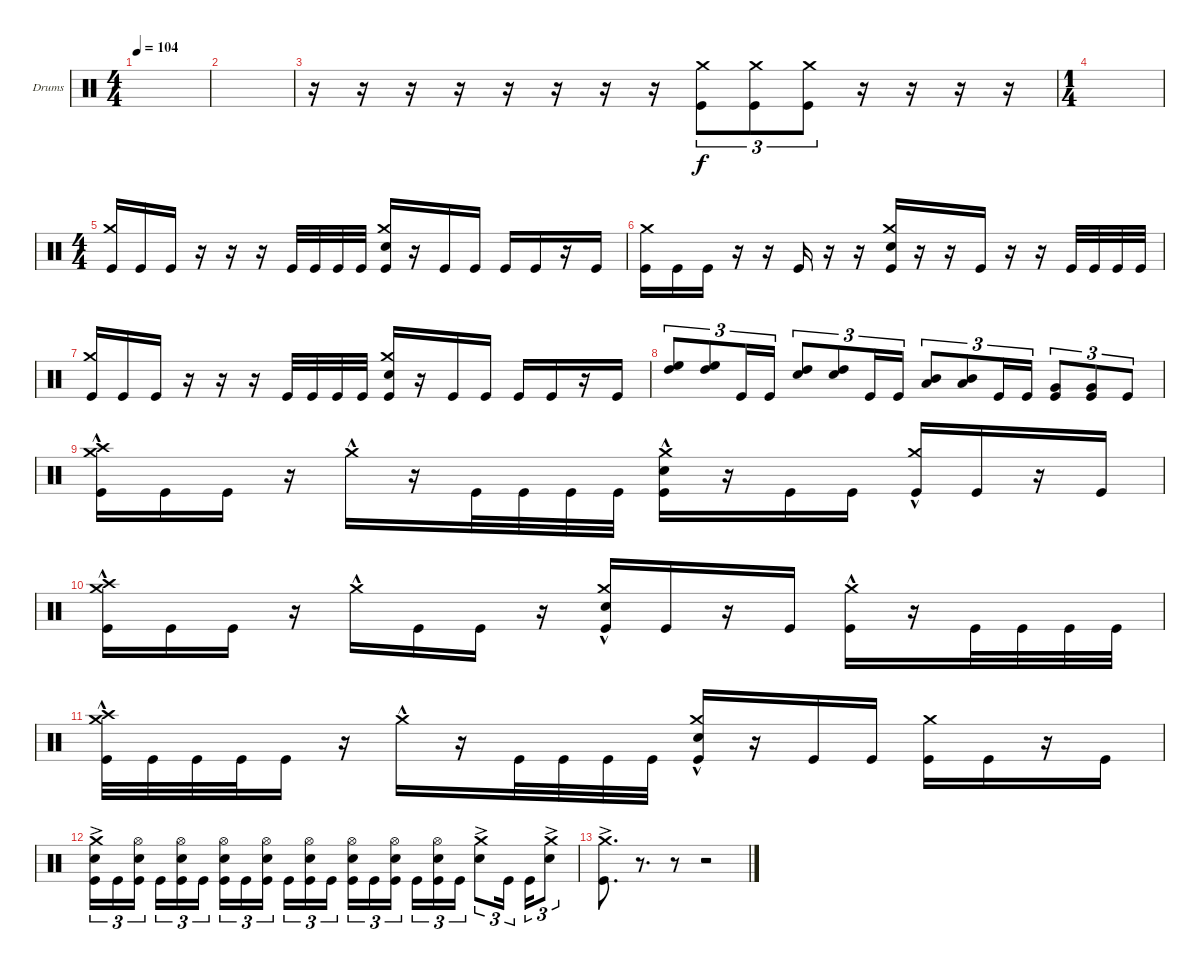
\defaultSystemsLayout 4
\bracketExtendMode groupsimilarinstruments
\firstSystemTrackNameOrientation horizontal
\otherSystemsTrackNameOrientation horizontal
\track ("Drumkit" "Drums") {instrument percussion}
\staff {score}
\articulation defaults
\ts (4 4)
\tempo 104
\clef neutral
\ks c
|
|
r.16 r.16 r.16 r.16 r.16 r.16 r.16 r.16 ("Kick (hit)" "Crash medium (hit)").8{tu (3 2)} ("Kick (hit)" "Crash medium (hit)").8{tu (3 2)} ("Kick (hit)" "Crash medium (hit)").8{tu (3 2)} r.16 r.16 r.16 r.16 |
\ts (1 4)
|
\ts (4 4)
("Kick (hit)" "Crash medium (hit)").16{beam invert} "Kick (hit)".16 "Kick (hit)".16 r.16 r.16 r.16 "Kick (hit)".32 "Kick (hit)".32 "Kick (hit)".32 "Kick (hit)".32 ("Kick (hit)" "Snare (hit) 2" "Crash medium (hit)").16 r.16 "Kick (hit)".16 "Kick (hit)".16 "Kick (hit)".16 "Kick (hit)".16 r.16 "Kick (hit)".16 |
("Kick (hit)" "Crash medium (hit)").16 "Kick (hit)".16 "Kick (hit)".16 r.16 r.16 "Kick (hit)".16 r.16 r.16 ("Kick (hit)" "Snare (hit) 2" "Crash medium (hit)").16 r.16 r.16 "Kick (hit)".16 r.16 r.16 "Kick (hit)".32 "Kick (hit)".32 "Kick (hit)".32 "Kick (hit)".32 |
("Kick (hit)" "Crash medium (hit)").16{beam invert} "Kick (hit)".16 "Kick (hit)".16 r.16 r.16 r.16 "Kick (hit)".32 "Kick (hit)".32 "Kick (hit)".32 "Kick (hit)".32 ("Kick (hit)" "Snare (hit) 2" "Crash medium (hit)").16 r.16 "Kick (hit)".16 "Kick (hit)".16 "Kick (hit)".16 "Kick (hit)".16 r.16 "Kick (hit)".16 |
("High Floor Tom (hit)" "High Tom (hit)").8{tu (3 2)} ("High Tom (hit)" "High Floor Tom (hit)").8{tu (3 2)} "Kick (hit)".16{tu (3 2)} "Kick (hit)".16{tu (3 2)} ("High Tom (hit)" "Snare (hit) 2").8{tu (3 2)} ("High Tom (hit)" "Snare (hit) 2").8{tu (3 2)} "Kick (hit)".16{tu (3 2)} "Kick (hit)".16{tu (3 2)} ("Mid Tom (hit)" "Low Tom (hit)").8{tu (3 2)} ("Low Tom (hit)" "Mid Tom (hit)").8{tu (3 2)} "Kick (hit)".16{tu (3 2)} "Kick (hit)".16{tu (3 2)} ("Very Low Tom (hit)" "Kick (hit)").8{tu (3 2)} ("Kick (hit)" "Very Low Tom (hit)").8{tu (3 2)} "Kick (hit)".8{tu (3 2)} |
("Kick (hit)" "Crash medium (hit)"{hac} "Crash high (hit)").16 "Kick (hit)".16 "Kick (hit)".16 r.16 "Crash medium (hit)"{hac}.16 r.16 "Kick (hit)".32 "Kick (hit)".32 "Kick (hit)".32 "Kick (hit)".32 ("Kick (hit)" "Snare (hit) 2" "Crash medium (hit)"{hac}).16 r.16 "Kick (hit)".16 "Kick (hit)".16 ("Kick (hit)" "Crash medium (hit)"{hac}).16{beam invert} "Kick (hit)".16 r.16 "Kick (hit)".16 |
("Kick (hit)" "Crash medium (hit)"{hac} "Crash high (hit)").16 "Kick (hit)".16 "Kick (hit)".16 r.16 "Crash medium (hit)"{hac}.16 "Kick (hit)".16 "Kick (hit)".16 r.16 ("Kick (hit)" "Snare (hit) 2" "Crash medium (hit)"{hac}).16 "Kick (hit)".16 r.16 "Kick (hit)".16 ("Kick (hit)" "Crash medium (hit)"{hac}).16 r.16 "Kick (hit)".32 "Kick (hit)".32 "Kick (hit)".32 "Kick (hit)".32 |
("Kick (hit)" "Crash medium (hit)"{hac} "Crash high (hit)").32 "Kick (hit)".32 "Kick (hit)".32 "Kick (hit)".32 "Kick (hit)".16 r.16 "Crash medium (hit)"{hac}.16 r.16 "Kick (hit)".32 "Kick (hit)".32 "Kick (hit)".32 "Kick (hit)".32 ("Kick (hit)" "Snare (hit) 2" "Crash medium (hit)"{hac}).16 r.16 "Kick (hit)".16 "Kick (hit)".16 ("Kick (hit)" "Crash medium (hit)").16 "Kick (hit)".16 r.16 "Kick (hit)".16 |
("Kick (hit)" "Snare (hit) 2" "Crash medium (hit)"{ac}).16{tu (3 2)} "Kick (hit)".16{tu (3 2)} ("Kick (hit)" "Snare (hit) 2" "Hi-Hat (open)").16{tu (3 2)} "Kick (hit)".16{tu (3 2)} ("Kick (hit)" "Snare (hit) 2" "Hi-Hat (open)").16{tu (3 2)} "Kick (hit)".16{tu (3 2)} ("Kick (hit)" "Snare (hit) 2" "Hi-Hat (open)").16{tu (3 2)} "Kick (hit)".16{tu (3 2)} ("Kick (hit)" "Snare (hit) 2" "Hi-Hat (open)").16{tu (3 2)} "Kick (hit)".16{tu (3 2)} ("Kick (hit)" "Snare (hit) 2" "Hi-Hat (open)").16{tu (3 2)} "Kick (hit)".16{tu (3 2)} ("Kick (hit)" "Snare (hit) 2" "Hi-Hat (open)").16{tu (3 2)} "Kick (hit)".16{tu (3 2)} ("Kick (hit)" "Snare (hit) 2" "Hi-Hat (open)").16{tu (3 2)} "Kick (hit)".16{tu (3 2)} ("Kick (hit)" "Snare (hit) 2" "Hi-Hat (open)").16{tu (3 2)} "Kick (hit)".16{tu (3 2)} ("Crash medium (hit)"{ac} "Snare (hit) 2").8{tu (3 2)} "Kick (hit)".16{tu (3 2)} "Kick (hit)".16{tu (3 2)} ("Snare (hit) 2" "Crash medium (hit)"{ac}).8{tu (3 2)} |
("Crash medium (hit)"{ac} "Kick (hit)").8{d} r.8{d} r.8 r.2
